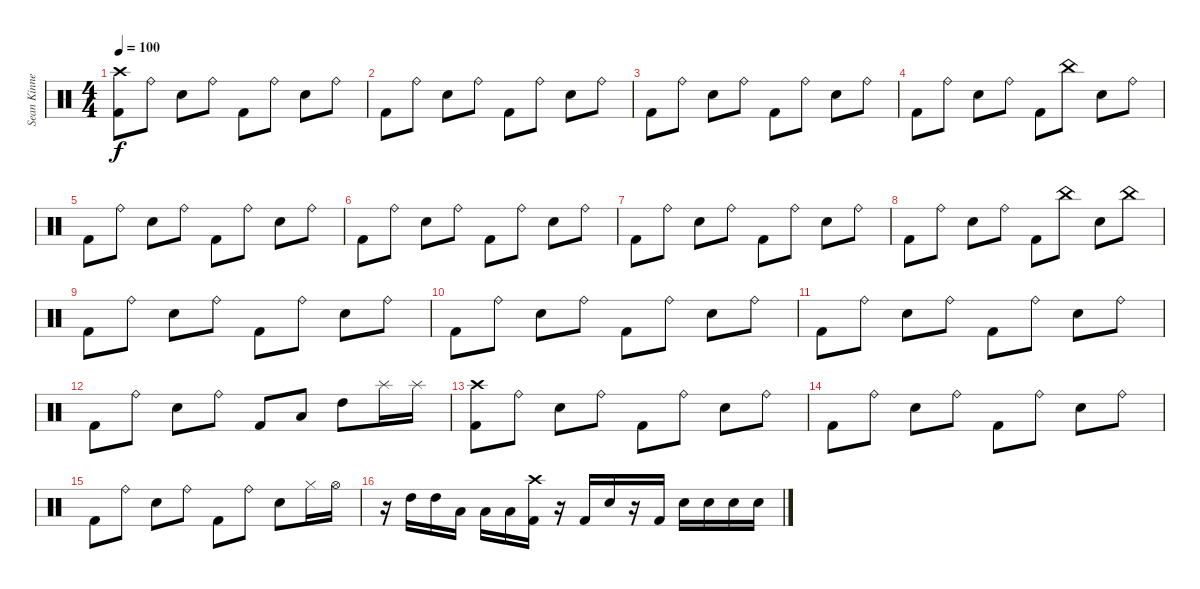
\track ("Sean Kinney" "Sean Kinne") {instrument percussion}
\staff {score}
\articulation defaults
\ts (4 4)
\tempo 100
\clef neutral
\ks c
("Crash high (hit)" "Kick (hit) 2").8{dy f} "Ride (bell)".8 "Snare (hit) 2".8 "Ride (bell)".8 "Kick (hit) 2".8 "Ride (bell)".8 "Snare (hit) 2".8 "Ride (bell)".8 |
"Kick (hit) 2".8 "Ride (bell)".8 "Snare (hit) 2".8 "Ride (bell)".8 "Kick (hit) 2".8 "Ride (bell)".8 "Snare (hit) 2".8 "Ride (bell)".8 |
"Kick (hit) 2".8 "Ride (bell)".8 "Snare (hit) 2".8 "Ride (bell)".8 "Kick (hit) 2".8 "Ride (bell)".8 "Snare (hit) 2".8 "Ride (bell)".8 |
"Kick (hit) 2".8 "Ride (bell)".8 "Snare (hit) 2".8 "Ride (bell)".8 "Kick (hit) 2".8 "China (hit)".8 "Snare (hit) 2".8 "Ride (bell)".8 |
"Kick (hit) 2".8 "Ride (bell)".8 "Snare (hit) 2".8 "Ride (bell)".8 "Kick (hit) 2".8 "Ride (bell)".8 "Snare (hit) 2".8 "Ride (bell)".8 |
"Kick (hit) 2".8 "Ride (bell)".8 "Snare (hit) 2".8 "Ride (bell)".8 "Kick (hit) 2".8 "Ride (bell)".8 "Snare (hit) 2".8 "Ride (bell)".8 |
"Kick (hit) 2".8 "Ride (bell)".8 "Snare (hit) 2".8 "Ride (bell)".8 "Kick (hit) 2".8 "Ride (bell)".8 "Snare (hit) 2".8 "Ride (bell)".8 |
"Kick (hit) 2".8 "Ride (bell)".8 "Snare (hit) 2".8 "Ride (bell)".8 "Kick (hit) 2".8 "China (hit)".8 "Snare (hit) 2".8 "China (hit)".8 |
"Kick (hit) 2".8 "Ride (bell)".8 "Snare (hit) 2".8 "Ride (bell)".8 "Kick (hit) 2".8 "Ride (bell)".8 "Snare (hit) 2".8 "Ride (bell)".8 |
"Kick (hit) 2".8 "Ride (bell)".8 "Snare (hit) 2".8 "Ride (bell)".8 "Kick (hit) 2".8 "Ride (bell)".8 "Snare (hit) 2".8 "Ride (bell)".8 |
"Kick (hit) 2".8 "Ride (bell)".8 "Snare (hit) 2".8 "Ride (bell)".8 "Kick (hit) 2".8 "Ride (bell)".8 "Snare (hit) 2".8 "Ride (bell)".8 |
"Kick (hit) 2".8 "Ride (bell)".8 "Snare (hit) 2".8 "Ride (bell)".8 "Kick (hit) 2".8 "Low Tom (hit)".8 "High Tom (hit)".8 "Splash (hit)".16 "Splash (hit)".16 |
("Crash high (hit)" "Kick (hit) 2").8 "Ride (bell)".8 "Snare (hit) 2".8 "Ride (bell)".8 "Kick (hit) 2".8 "Ride (bell)".8 "Snare (hit) 2".8 "Ride (bell)".8 |
"Kick (hit) 2".8 "Ride (bell)".8 "Snare (hit) 2".8 "Ride (bell)".8 "Kick (hit) 2".8 "Ride (bell)".8 "Snare (hit) 2".8 "Ride (bell)".8 |
"Kick (hit) 2".8 "Ride (bell)".8 "Snare (hit) 2".8 "Ride (bell)".8 "Kick (hit) 2".8 "Ride (bell)".8 "Snare (hit) 2".8 "Hi-Hat (closed)".16 "Hi-Hat (open)".16 |
r.16 "High Tom (hit)".16 "High Tom (hit)".16 "Low Tom (hit)".16 "Low Tom (hit)".16 "Low Tom (hit)".16 ("Crash high (hit)" "Kick (hit) 2").16 r.16 "Kick (hit) 2".16 "Snare (hit) 2".16 r.16 "Kick (hit) 2".16 "Snare (hit) 2".16 "Snare (hit) 2".16 "Snare (hit) 2".16 "Snare (hit) 2".16
